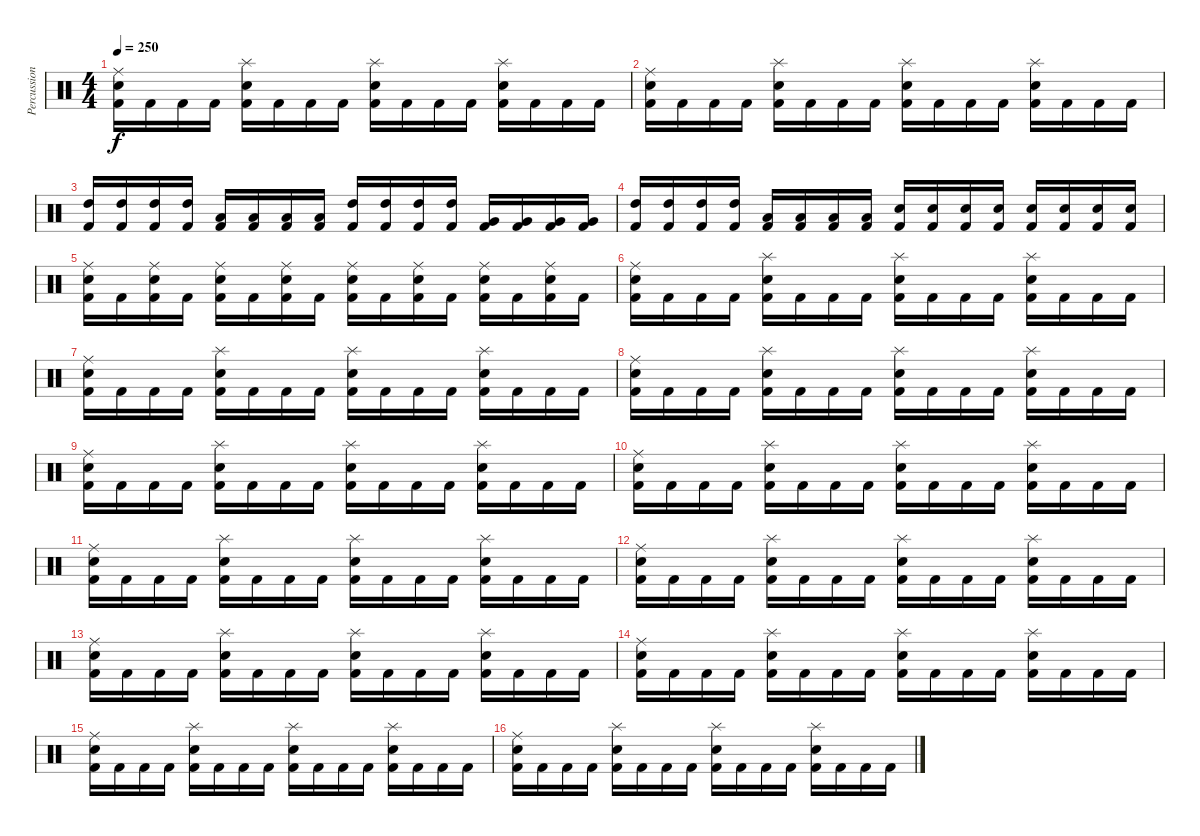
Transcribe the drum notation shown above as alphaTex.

\track ("Percussion" "Percussion") {instrument percussion}
\staff {score}
\articulation defaults
\ts (4 4)
\tempo 250
\clef neutral
\ks c
("Ride (middle)" "Electric Snare (hit)" "Kick (hit) 2").16{dy f} "Kick (hit) 2".16 "Kick (hit) 2".16 "Kick (hit) 2".16 ("Splash (hit)" "Electric Snare (hit)" "Kick (hit) 2").16 "Kick (hit) 2".16 "Kick (hit) 2".16 "Kick (hit) 2".16 ("Splash (hit)" "Electric Snare (hit)" "Kick (hit) 2").16 "Kick (hit) 2".16 "Kick (hit) 2".16 "Kick (hit) 2".16 ("Splash (hit)" "Electric Snare (hit)" "Kick (hit) 2").16 "Kick (hit) 2".16 "Kick (hit) 2".16 "Kick (hit) 2".16 |
("Ride (middle)" "Electric Snare (hit)" "Kick (hit) 2").16 "Kick (hit) 2".16 "Kick (hit) 2".16 "Kick (hit) 2".16 ("Splash (hit)" "Electric Snare (hit)" "Kick (hit) 2").16 "Kick (hit) 2".16 "Kick (hit) 2".16 "Kick (hit) 2".16 ("Splash (hit)" "Electric Snare (hit)" "Kick (hit) 2").16 "Kick (hit) 2".16 "Kick (hit) 2".16 "Kick (hit) 2".16 ("Splash (hit)" "Electric Snare (hit)" "Kick (hit) 2").16 "Kick (hit) 2".16 "Kick (hit) 2".16 "Kick (hit) 2".16 |
("High Tom (hit)" "Kick (hit) 2").16 ("High Tom (hit)" "Kick (hit) 2").16 ("High Tom (hit)" "Kick (hit) 2").16 ("High Tom (hit)" "Kick (hit) 2").16 ("Low Tom (hit)" "Kick (hit) 2").16 ("Low Tom (hit)" "Kick (hit) 2").16 ("Low Tom (hit)" "Kick (hit) 2").16 ("Low Tom (hit)" "Kick (hit) 2").16 ("High Tom (hit)" "Kick (hit) 2").16 ("High Tom (hit)" "Kick (hit) 2").16 ("High Tom (hit)" "Kick (hit) 2").16 ("High Tom (hit)" "Kick (hit) 2").16 ("Very Low Tom (hit)" "Kick (hit) 2").16 ("Very Low Tom (hit)" "Kick (hit) 2").16 ("Very Low Tom (hit)" "Kick (hit) 2").16 ("Very Low Tom (hit)" "Kick (hit) 2").16 |
("High Tom (hit)" "Kick (hit) 2").16 ("High Tom (hit)" "Kick (hit) 2").16 ("High Tom (hit)" "Kick (hit) 2").16 ("High Tom (hit)" "Kick (hit) 2").16 ("Low Tom (hit)" "Kick (hit) 2").16 ("Low Tom (hit)" "Kick (hit) 2").16 ("Low Tom (hit)" "Kick (hit) 2").16 ("Low Tom (hit)" "Kick (hit) 2").16 ("Electric Snare (hit)" "Kick (hit) 2").16 ("Electric Snare (hit)" "Kick (hit) 2").16 ("Electric Snare (hit)" "Kick (hit) 2").16 ("Electric Snare (hit)" "Kick (hit) 2").16 ("Electric Snare (hit)" "Kick (hit) 2").16 ("Electric Snare (hit)" "Kick (hit) 2").16 ("Electric Snare (hit)" "Kick (hit) 2").16 ("Electric Snare (hit)" "Kick (hit) 2").16 |
("Ride (middle)" "Electric Snare (hit)" "Kick (hit) 2").16 "Kick (hit) 2".16 ("Ride (middle)" "Electric Snare (hit)" "Kick (hit) 2").16 "Kick (hit) 2".16 ("Ride (middle)" "Electric Snare (hit)" "Kick (hit) 2").16 "Kick (hit) 2".16 ("Ride (middle)" "Electric Snare (hit)" "Kick (hit) 2").16 "Kick (hit) 2".16 ("Ride (middle)" "Electric Snare (hit)" "Kick (hit) 2").16 "Kick (hit) 2".16 ("Ride (middle)" "Electric Snare (hit)" "Kick (hit) 2").16 "Kick (hit) 2".16 ("Ride (middle)" "Electric Snare (hit)" "Kick (hit) 2").16 "Kick (hit) 2".16 ("Ride (middle)" "Electric Snare (hit)" "Kick (hit) 2").16 "Kick (hit) 2".16 |
("Ride (middle)" "Electric Snare (hit)" "Kick (hit) 2").16 "Kick (hit) 2".16 "Kick (hit) 2".16 "Kick (hit) 2".16 ("Splash (hit)" "Electric Snare (hit)" "Kick (hit) 2").16 "Kick (hit) 2".16 "Kick (hit) 2".16 "Kick (hit) 2".16 ("Splash (hit)" "Electric Snare (hit)" "Kick (hit) 2").16 "Kick (hit) 2".16 "Kick (hit) 2".16 "Kick (hit) 2".16 ("Splash (hit)" "Electric Snare (hit)" "Kick (hit) 2").16 "Kick (hit) 2".16 "Kick (hit) 2".16 "Kick (hit) 2".16 |
("Ride (middle)" "Electric Snare (hit)" "Kick (hit) 2").16 "Kick (hit) 2".16 "Kick (hit) 2".16 "Kick (hit) 2".16 ("Splash (hit)" "Electric Snare (hit)" "Kick (hit) 2").16 "Kick (hit) 2".16 "Kick (hit) 2".16 "Kick (hit) 2".16 ("Splash (hit)" "Electric Snare (hit)" "Kick (hit) 2").16 "Kick (hit) 2".16 "Kick (hit) 2".16 "Kick (hit) 2".16 ("Splash (hit)" "Electric Snare (hit)" "Kick (hit) 2").16 "Kick (hit) 2".16 "Kick (hit) 2".16 "Kick (hit) 2".16 |
("Ride (middle)" "Electric Snare (hit)" "Kick (hit) 2").16 "Kick (hit) 2".16 "Kick (hit) 2".16 "Kick (hit) 2".16 ("Splash (hit)" "Electric Snare (hit)" "Kick (hit) 2").16 "Kick (hit) 2".16 "Kick (hit) 2".16 "Kick (hit) 2".16 ("Splash (hit)" "Electric Snare (hit)" "Kick (hit) 2").16 "Kick (hit) 2".16 "Kick (hit) 2".16 "Kick (hit) 2".16 ("Splash (hit)" "Electric Snare (hit)" "Kick (hit) 2").16 "Kick (hit) 2".16 "Kick (hit) 2".16 "Kick (hit) 2".16 |
("Ride (middle)" "Electric Snare (hit)" "Kick (hit) 2").16 "Kick (hit) 2".16 "Kick (hit) 2".16 "Kick (hit) 2".16 ("Splash (hit)" "Electric Snare (hit)" "Kick (hit) 2").16 "Kick (hit) 2".16 "Kick (hit) 2".16 "Kick (hit) 2".16 ("Splash (hit)" "Electric Snare (hit)" "Kick (hit) 2").16 "Kick (hit) 2".16 "Kick (hit) 2".16 "Kick (hit) 2".16 ("Splash (hit)" "Electric Snare (hit)" "Kick (hit) 2").16 "Kick (hit) 2".16 "Kick (hit) 2".16 "Kick (hit) 2".16 |
("Ride (middle)" "Electric Snare (hit)" "Kick (hit) 2").16 "Kick (hit) 2".16 "Kick (hit) 2".16 "Kick (hit) 2".16 ("Splash (hit)" "Electric Snare (hit)" "Kick (hit) 2").16 "Kick (hit) 2".16 "Kick (hit) 2".16 "Kick (hit) 2".16 ("Splash (hit)" "Electric Snare (hit)" "Kick (hit) 2").16 "Kick (hit) 2".16 "Kick (hit) 2".16 "Kick (hit) 2".16 ("Splash (hit)" "Electric Snare (hit)" "Kick (hit) 2").16 "Kick (hit) 2".16 "Kick (hit) 2".16 "Kick (hit) 2".16 |
("Ride (middle)" "Electric Snare (hit)" "Kick (hit) 2").16 "Kick (hit) 2".16 "Kick (hit) 2".16 "Kick (hit) 2".16 ("Splash (hit)" "Electric Snare (hit)" "Kick (hit) 2").16 "Kick (hit) 2".16 "Kick (hit) 2".16 "Kick (hit) 2".16 ("Splash (hit)" "Electric Snare (hit)" "Kick (hit) 2").16 "Kick (hit) 2".16 "Kick (hit) 2".16 "Kick (hit) 2".16 ("Splash (hit)" "Electric Snare (hit)" "Kick (hit) 2").16 "Kick (hit) 2".16 "Kick (hit) 2".16 "Kick (hit) 2".16 |
("Ride (middle)" "Electric Snare (hit)" "Kick (hit) 2").16 "Kick (hit) 2".16 "Kick (hit) 2".16 "Kick (hit) 2".16 ("Splash (hit)" "Electric Snare (hit)" "Kick (hit) 2").16 "Kick (hit) 2".16 "Kick (hit) 2".16 "Kick (hit) 2".16 ("Splash (hit)" "Electric Snare (hit)" "Kick (hit) 2").16 "Kick (hit) 2".16 "Kick (hit) 2".16 "Kick (hit) 2".16 ("Splash (hit)" "Electric Snare (hit)" "Kick (hit) 2").16 "Kick (hit) 2".16 "Kick (hit) 2".16 "Kick (hit) 2".16 |
("Ride (middle)" "Electric Snare (hit)" "Kick (hit) 2").16 "Kick (hit) 2".16 "Kick (hit) 2".16 "Kick (hit) 2".16 ("Splash (hit)" "Electric Snare (hit)" "Kick (hit) 2").16 "Kick (hit) 2".16 "Kick (hit) 2".16 "Kick (hit) 2".16 ("Splash (hit)" "Electric Snare (hit)" "Kick (hit) 2").16 "Kick (hit) 2".16 "Kick (hit) 2".16 "Kick (hit) 2".16 ("Splash (hit)" "Electric Snare (hit)" "Kick (hit) 2").16 "Kick (hit) 2".16 "Kick (hit) 2".16 "Kick (hit) 2".16 |
("Ride (middle)" "Electric Snare (hit)" "Kick (hit) 2").16 "Kick (hit) 2".16 "Kick (hit) 2".16 "Kick (hit) 2".16 ("Splash (hit)" "Electric Snare (hit)" "Kick (hit) 2").16 "Kick (hit) 2".16 "Kick (hit) 2".16 "Kick (hit) 2".16 ("Splash (hit)" "Electric Snare (hit)" "Kick (hit) 2").16 "Kick (hit) 2".16 "Kick (hit) 2".16 "Kick (hit) 2".16 ("Splash (hit)" "Electric Snare (hit)" "Kick (hit) 2").16 "Kick (hit) 2".16 "Kick (hit) 2".16 "Kick (hit) 2".16 |
("Ride (middle)" "Electric Snare (hit)" "Kick (hit) 2").16 "Kick (hit) 2".16 "Kick (hit) 2".16 "Kick (hit) 2".16 ("Splash (hit)" "Electric Snare (hit)" "Kick (hit) 2").16 "Kick (hit) 2".16 "Kick (hit) 2".16 "Kick (hit) 2".16 ("Splash (hit)" "Electric Snare (hit)" "Kick (hit) 2").16 "Kick (hit) 2".16 "Kick (hit) 2".16 "Kick (hit) 2".16 ("Splash (hit)" "Electric Snare (hit)" "Kick (hit) 2").16 "Kick (hit) 2".16 "Kick (hit) 2".16 "Kick (hit) 2".16 |
("Ride (middle)" "Electric Snare (hit)" "Kick (hit) 2").16 "Kick (hit) 2".16 "Kick (hit) 2".16 "Kick (hit) 2".16 ("Splash (hit)" "Electric Snare (hit)" "Kick (hit) 2").16 "Kick (hit) 2".16 "Kick (hit) 2".16 "Kick (hit) 2".16 ("Splash (hit)" "Electric Snare (hit)" "Kick (hit) 2").16 "Kick (hit) 2".16 "Kick (hit) 2".16 "Kick (hit) 2".16 ("Splash (hit)" "Electric Snare (hit)" "Kick (hit) 2").16 "Kick (hit) 2".16 "Kick (hit) 2".16 "Kick (hit) 2".16
